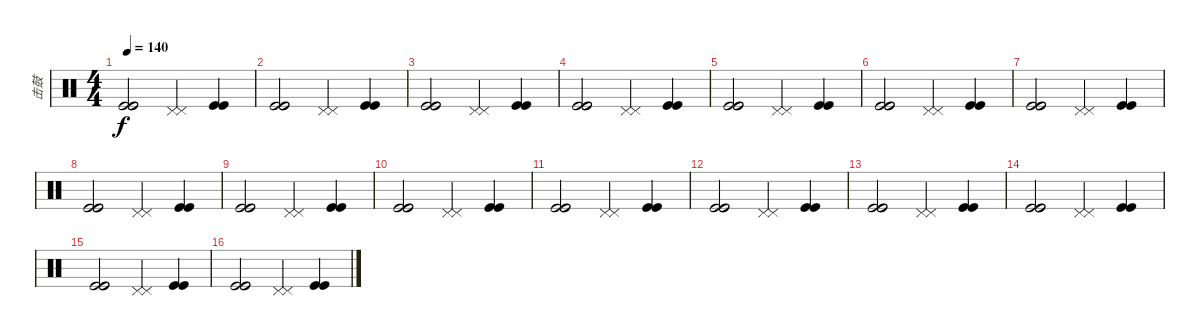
\track ("击鼓" "击鼓") {instrument percussion}
\staff {score}
\articulation defaults
\ts (4 4)
\tempo 140
\clef neutral
\ks c
("Kick (hit)" "Kick (hit)" "Kick (hit)").2{dy f} ("Pedal Hi-Hat (hit)" "Pedal Hi-Hat (hit)").4 ("Kick (hit)" "Kick (hit)").4 |
("Kick (hit)" "Kick (hit)" "Kick (hit)").2 ("Pedal Hi-Hat (hit)" "Pedal Hi-Hat (hit)").4 ("Kick (hit)" "Kick (hit)").4 |
("Kick (hit)" "Kick (hit)" "Kick (hit)").2 ("Pedal Hi-Hat (hit)" "Pedal Hi-Hat (hit)").4 ("Kick (hit)" "Kick (hit)").4 |
("Kick (hit)" "Kick (hit)" "Kick (hit)").2 ("Pedal Hi-Hat (hit)" "Pedal Hi-Hat (hit)").4 ("Kick (hit)" "Kick (hit)").4 |
("Kick (hit)" "Kick (hit)" "Kick (hit)").2 ("Pedal Hi-Hat (hit)" "Pedal Hi-Hat (hit)").4 ("Kick (hit)" "Kick (hit)").4 |
("Kick (hit)" "Kick (hit)" "Kick (hit)").2 ("Pedal Hi-Hat (hit)" "Pedal Hi-Hat (hit)").4 ("Kick (hit)" "Kick (hit)").4 |
("Kick (hit)" "Kick (hit)" "Kick (hit)").2 ("Pedal Hi-Hat (hit)" "Pedal Hi-Hat (hit)").4 ("Kick (hit)" "Kick (hit)").4 |
("Kick (hit)" "Kick (hit)" "Kick (hit)").2 ("Pedal Hi-Hat (hit)" "Pedal Hi-Hat (hit)").4 ("Kick (hit)" "Kick (hit)").4 |
("Kick (hit)" "Kick (hit)" "Kick (hit)").2 ("Pedal Hi-Hat (hit)" "Pedal Hi-Hat (hit)").4 ("Kick (hit)" "Kick (hit)").4 |
("Kick (hit)" "Kick (hit)" "Kick (hit)").2 ("Pedal Hi-Hat (hit)" "Pedal Hi-Hat (hit)").4 ("Kick (hit)" "Kick (hit)").4 |
("Kick (hit)" "Kick (hit)" "Kick (hit)").2 ("Pedal Hi-Hat (hit)" "Pedal Hi-Hat (hit)").4 ("Kick (hit)" "Kick (hit)").4 |
("Kick (hit)" "Kick (hit)" "Kick (hit)").2 ("Pedal Hi-Hat (hit)" "Pedal Hi-Hat (hit)").4 ("Kick (hit)" "Kick (hit)").4 |
("Kick (hit)" "Kick (hit)" "Kick (hit)").2 ("Pedal Hi-Hat (hit)" "Pedal Hi-Hat (hit)").4 ("Kick (hit)" "Kick (hit)").4 |
("Kick (hit)" "Kick (hit)" "Kick (hit)").2 ("Pedal Hi-Hat (hit)" "Pedal Hi-Hat (hit)").4 ("Kick (hit)" "Kick (hit)").4 |
("Kick (hit)" "Kick (hit)" "Kick (hit)").2 ("Pedal Hi-Hat (hit)" "Pedal Hi-Hat (hit)").4 ("Kick (hit)" "Kick (hit)").4 |
("Kick (hit)" "Kick (hit)" "Kick (hit)").2 ("Pedal Hi-Hat (hit)" "Pedal Hi-Hat (hit)").4 ("Kick (hit)" "Kick (hit)").4
